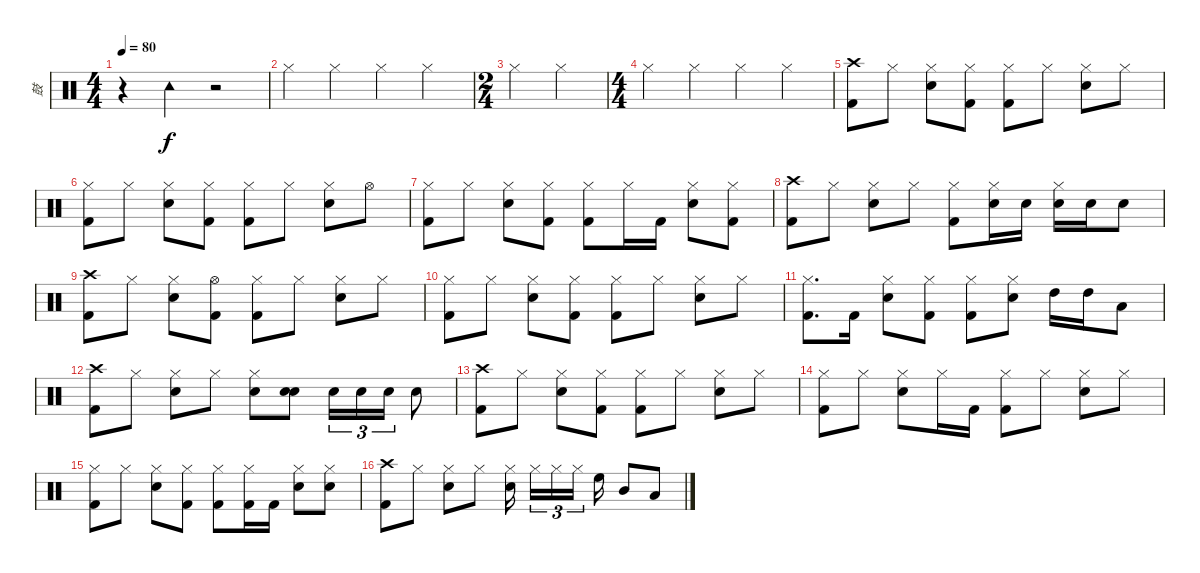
\track ("鼓" "鼓") {instrument percussion}
\staff {score}
\articulation defaults
\ts (4 4)
\tempo 80
\clef neutral
\ks c
r.4{dy f} "Tambourine (hit)".4 r.2 |
"Hi-Hat (closed)".4 "Hi-Hat (closed)".4 "Hi-Hat (closed)".4 "Hi-Hat (closed)".4 |
\ts (2 4)
"Hi-Hat (closed)".4 "Hi-Hat (closed)".4 |
\ts (4 4)
"Hi-Hat (closed)".4 "Hi-Hat (closed)".4 "Hi-Hat (closed)".4 "Hi-Hat (closed)".4 |
("Crash high (hit)" "Kick (hit) 2").8 "Hi-Hat (closed)".8 ("Hi-Hat (closed)" "Snare (hit) 2").8 ("Hi-Hat (closed)" "Kick (hit) 2").8 ("Hi-Hat (closed)" "Kick (hit) 2").8 "Hi-Hat (closed)".8 ("Hi-Hat (closed)" "Snare (hit) 2").8 "Hi-Hat (closed)".8 |
("Hi-Hat (closed)" "Kick (hit) 2").8 "Hi-Hat (closed)".8 ("Hi-Hat (closed)" "Snare (hit) 2").8 ("Hi-Hat (closed)" "Kick (hit) 2").8 ("Hi-Hat (closed)" "Kick (hit) 2").8 "Hi-Hat (closed)".8 ("Hi-Hat (closed)" "Snare (hit) 2").8 "Hi-Hat (open)".8 |
("Hi-Hat (closed)" "Kick (hit) 2").8 "Hi-Hat (closed)".8 ("Hi-Hat (closed)" "Snare (hit) 2").8 ("Hi-Hat (closed)" "Kick (hit) 2").8 ("Hi-Hat (closed)" "Kick (hit) 2").8 "Hi-Hat (closed)".16 "Kick (hit) 2".16 ("Hi-Hat (closed)" "Snare (hit) 2").8 ("Hi-Hat (closed)" "Kick (hit) 2").8 |
("Crash high (hit)" "Kick (hit) 2").8 "Hi-Hat (closed)".8 ("Hi-Hat (closed)" "Snare (hit) 2").8 "Hi-Hat (closed)".8 ("Hi-Hat (closed)" "Kick (hit) 2").8 ("Hi-Hat (closed)" "Snare (hit) 2").16 "Snare (hit) 2".16 ("Hi-Hat (closed)" "Snare (hit) 2").16 "Snare (hit) 2".16 "Snare (hit) 2".8 |
("Crash high (hit)" "Kick (hit) 2").8 "Hi-Hat (closed)".8 ("Hi-Hat (closed)" "Snare (hit) 2").8 ("Hi-Hat (open)" "Kick (hit) 2").8 ("Hi-Hat (closed)" "Kick (hit) 2").8 "Hi-Hat (closed)".8 ("Hi-Hat (closed)" "Snare (hit) 2").8 "Hi-Hat (closed)".8 |
("Hi-Hat (closed)" "Kick (hit) 2").8 "Hi-Hat (closed)".8 ("Hi-Hat (closed)" "Snare (hit) 2").8 ("Hi-Hat (closed)" "Kick (hit) 2").8 ("Hi-Hat (closed)" "Kick (hit) 2").8 "Hi-Hat (closed)".8 ("Hi-Hat (closed)" "Snare (hit) 2").8 "Hi-Hat (closed)".8 |
("Hi-Hat (closed)" "Kick (hit) 2").8{d} "Kick (hit) 2".16 ("Hi-Hat (closed)" "Snare (hit) 2").8 ("Hi-Hat (closed)" "Kick (hit) 2").8 ("Hi-Hat (closed)" "Kick (hit) 2").8 ("Hi-Hat (closed)" "Snare (hit) 2").8 "High Tom (hit)".16 "High Tom (hit)".16 "Low Tom (hit)".8 |
("Crash high (hit)" "Kick (hit) 2").8 "Hi-Hat (closed)".8 ("Hi-Hat (closed)" "Snare (hit) 2").8 "Hi-Hat (closed)".8 ("Hi-Hat (closed)" "Snare (hit) 2").8 ("Snare (hit)" "Snare (hit) 2").8 "Snare (hit) 2".16{tu (3 2)} "Snare (hit) 2".16{tu (3 2)} "Snare (hit) 2".16{tu (3 2)} "Snare (hit) 2".8 |
("Crash high (hit)" "Kick (hit) 2").8 "Hi-Hat (closed)".8 ("Hi-Hat (closed)" "Snare (hit) 2").8 ("Hi-Hat (closed)" "Kick (hit) 2").8 ("Hi-Hat (closed)" "Kick (hit) 2").8 "Hi-Hat (closed)".8 ("Hi-Hat (closed)" "Snare (hit) 2").8 "Hi-Hat (closed)".8 |
("Hi-Hat (closed)" "Kick (hit) 2").8 "Hi-Hat (closed)".8 ("Hi-Hat (closed)" "Snare (hit) 2").8 "Hi-Hat (closed)".16 "Kick (hit) 2".16 ("Hi-Hat (closed)" "Kick (hit) 2").8 "Hi-Hat (closed)".8 ("Hi-Hat (closed)" "Snare (hit) 2").8 "Hi-Hat (closed)".8 |
("Hi-Hat (closed)" "Kick (hit) 2").8 "Hi-Hat (closed)".8 ("Hi-Hat (closed)" "Snare (hit) 2").8 ("Hi-Hat (closed)" "Kick (hit) 2").8 ("Hi-Hat (closed)" "Kick (hit) 2").8 ("Hi-Hat (closed)" "Kick (hit) 2").16 "Kick (hit) 2".16 ("Hi-Hat (closed)" "Snare (hit) 2").8 ("Hi-Hat (closed)" "Snare (hit) 2").8 |
("Crash high (hit)" "Kick (hit) 2").8 "Hi-Hat (closed)".8 ("Hi-Hat (closed)" "Snare (hit) 2").8 "Hi-Hat (closed)".8 ("Hi-Hat (closed)" "Snare (hit) 2").16{beam splitsecondary} "Hi-Hat (closed)".16{tu (3 2)} "Hi-Hat (closed)".16{tu (3 2)} "Hi-Hat (closed)".16{tu (3 2) beam splitsecondary} "High Floor Tom (hit)".16 "Mid Tom (hit)".8 "Low Tom (hit)".8
